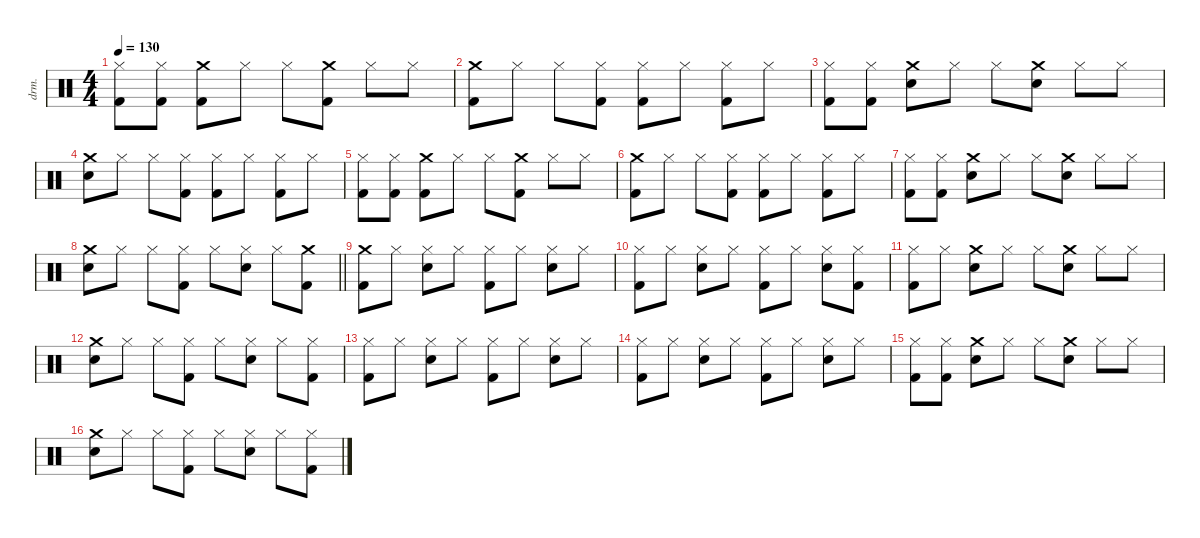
\defaultSystemsLayout 4
\hideDynamics
\bracketExtendMode nobrackets
\otherSystemsTrackNameOrientation horizontal
\track ("Lars Ulrich (Drums)" "drm.") {instrument percussion}
\staff {score}
\articulation defaults
\ts (4 4)
\tempo 130
\clef neutral
\ks c
("Hi-Hat (closed)" "Kick (hit) 2").8{dy f beam Down} ("Hi-Hat (closed)" "Kick (hit) 2").8{beam Down} ("Kick (hit) 2" "Crash medium (hit)").8{beam Down} "Hi-Hat (closed)".8{beam Down} "Hi-Hat (closed)".8{beam Down} ("Crash medium (hit)" "Kick (hit) 2").8{beam Down} "Hi-Hat (closed)".8{beam Down} "Hi-Hat (closed)".8{beam Down} |
("Crash medium (hit)" "Kick (hit) 2").8{beam Down} "Hi-Hat (closed)".8{beam Down} "Hi-Hat (closed)".8{beam Down} ("Hi-Hat (closed)" "Kick (hit) 2").8{beam Down} ("Hi-Hat (closed)" "Kick (hit) 2").8{beam Down} "Hi-Hat (closed)".8{beam Down} ("Hi-Hat (closed)" "Kick (hit) 2").8{beam Down} "Hi-Hat (closed)".8{beam Down} |
("Hi-Hat (closed)" "Kick (hit) 2").8{beam Down} ("Hi-Hat (closed)" "Kick (hit) 2").8{beam Down} ("Crash medium (hit)" "Snare (hit) 2").8{beam Down} "Hi-Hat (closed)".8{beam Down} "Hi-Hat (closed)".8{beam Down} ("Crash medium (hit)" "Snare (hit) 2").8{beam Down} "Hi-Hat (closed)".8{beam Down} "Hi-Hat (closed)".8{beam Down} |
("Crash medium (hit)" "Snare (hit) 2").8{beam Down} "Hi-Hat (closed)".8{beam Down} "Hi-Hat (closed)".8{beam Down} ("Kick (hit) 2" "Hi-Hat (closed)").8{beam Down} ("Hi-Hat (closed)" "Kick (hit) 2").8{beam Down} "Hi-Hat (closed)".8{beam Down} ("Hi-Hat (closed)" "Kick (hit) 2").8{beam Down} "Hi-Hat (closed)".8{beam Down} |
("Hi-Hat (closed)" "Kick (hit) 2").8{beam Down} ("Hi-Hat (closed)" "Kick (hit) 2").8{beam Down} ("Kick (hit) 2" "Crash medium (hit)").8{beam Down} "Hi-Hat (closed)".8{beam Down} "Hi-Hat (closed)".8{beam Down} ("Crash medium (hit)" "Kick (hit) 2").8{beam Down} "Hi-Hat (closed)".8{beam Down} "Hi-Hat (closed)".8{beam Down} |
("Crash medium (hit)" "Kick (hit) 2").8{beam Down} "Hi-Hat (closed)".8{beam Down} "Hi-Hat (closed)".8{beam Down} ("Hi-Hat (closed)" "Kick (hit) 2").8{beam Down} ("Hi-Hat (closed)" "Kick (hit) 2").8{beam Down} "Hi-Hat (closed)".8{beam Down} ("Hi-Hat (closed)" "Kick (hit) 2").8{beam Down} "Hi-Hat (closed)".8{beam Down} |
("Hi-Hat (closed)" "Kick (hit) 2").8{beam Down} ("Hi-Hat (closed)" "Kick (hit) 2").8{beam Down} ("Crash medium (hit)" "Snare (hit) 2").8{beam Down} "Hi-Hat (closed)".8{beam Down} "Hi-Hat (closed)".8{beam Down} ("Crash medium (hit)" "Snare (hit) 2").8{beam Down} "Hi-Hat (closed)".8{beam Down} "Hi-Hat (closed)".8{beam Down} |
\barLineRight lightlight
("Crash medium (hit)" "Snare (hit) 2").8{beam Down} "Hi-Hat (closed)".8{beam Down} "Hi-Hat (closed)".8{beam Down} ("Kick (hit) 2" "Hi-Hat (closed)").8{beam Down} "Hi-Hat (closed)".8{beam Down} ("Snare (hit) 2" "Hi-Hat (closed)").8{beam Down} "Hi-Hat (closed)".8{beam Down} ("Crash medium (hit)" "Kick (hit) 2").8{beam Down} |
("Crash medium (hit)" "Kick (hit) 2").8{beam Down} "Hi-Hat (closed)".8{beam Down} ("Snare (hit) 2" "Hi-Hat (closed)").8{beam Down} "Hi-Hat (closed)".8{beam Down} ("Hi-Hat (closed)" "Kick (hit) 2").8{beam Down} "Hi-Hat (closed)".8{beam Down} ("Snare (hit) 2" "Hi-Hat (closed)").8{beam Down} "Hi-Hat (closed)".8{beam Down} |
("Hi-Hat (closed)" "Kick (hit) 2").8{beam Down} "Hi-Hat (closed)".8{beam Down} ("Snare (hit) 2" "Hi-Hat (closed)").8{beam Down} "Hi-Hat (closed)".8{beam Down} ("Hi-Hat (closed)" "Kick (hit) 2").8{beam Down} "Hi-Hat (closed)".8{beam Down} ("Snare (hit) 2" "Hi-Hat (closed)").8{beam Down} ("Hi-Hat (closed)" "Kick (hit) 2").8{beam Down} |
("Hi-Hat (closed)" "Kick (hit) 2").8{beam Down} "Hi-Hat (closed)".8{beam Down} ("Crash medium (hit)" "Snare (hit) 2").8{beam Down} "Hi-Hat (closed)".8{beam Down} "Hi-Hat (closed)".8{beam Down} ("Crash medium (hit)" "Snare (hit) 2").8{beam Down} "Hi-Hat (closed)".8{beam Down} "Hi-Hat (closed)".8{beam Down} |
("Crash medium (hit)" "Snare (hit) 2").8{beam Down} "Hi-Hat (closed)".8{beam Down} "Hi-Hat (closed)".8{beam Down} ("Hi-Hat (closed)" "Kick (hit) 2").8{beam Down} "Hi-Hat (closed)".8{beam Down} ("Snare (hit) 2" "Hi-Hat (closed)").8{beam Down} "Hi-Hat (closed)".8{beam Down} ("Hi-Hat (closed)" "Kick (hit) 2").8{beam Down} |
("Hi-Hat (closed)" "Kick (hit) 2").8{beam Down} "Hi-Hat (closed)".8{beam Down} ("Snare (hit) 2" "Hi-Hat (closed)").8{beam Down} "Hi-Hat (closed)".8{beam Down} ("Hi-Hat (closed)" "Kick (hit) 2").8{beam Down} "Hi-Hat (closed)".8{beam Down} ("Snare (hit) 2" "Hi-Hat (closed)").8{beam Down} "Hi-Hat (closed)".8{beam Down} |
("Hi-Hat (closed)" "Kick (hit) 2").8{beam Down} "Hi-Hat (closed)".8{beam Down} ("Snare (hit) 2" "Hi-Hat (closed)").8{beam Down} "Hi-Hat (closed)".8{beam Down} ("Hi-Hat (closed)" "Kick (hit) 2").8{beam Down} "Hi-Hat (closed)".8{beam Down} ("Snare (hit) 2" "Hi-Hat (closed)").8{beam Down} "Hi-Hat (closed)".8{beam Down} |
("Hi-Hat (closed)" "Kick (hit) 2").8{beam Down} ("Hi-Hat (closed)" "Kick (hit) 2").8{beam Down} ("Crash medium (hit)" "Snare (hit) 2").8{beam Down} "Hi-Hat (closed)".8{beam Down} "Hi-Hat (closed)".8{beam Down} ("Crash medium (hit)" "Snare (hit) 2").8{beam Down} "Hi-Hat (closed)".8{beam Down} "Hi-Hat (closed)".8{beam Down} |
("Crash medium (hit)" "Snare (hit) 2").8{beam Down} "Hi-Hat (closed)".8{beam Down} "Hi-Hat (closed)".8{beam Down} ("Kick (hit) 2" "Hi-Hat (closed)").8{beam Down} "Hi-Hat (closed)".8{beam Down} ("Snare (hit) 2" "Hi-Hat (closed)").8{beam Down} "Hi-Hat (closed)".8{beam Down} ("Hi-Hat (closed)" "Kick (hit) 2").8{beam Down}
